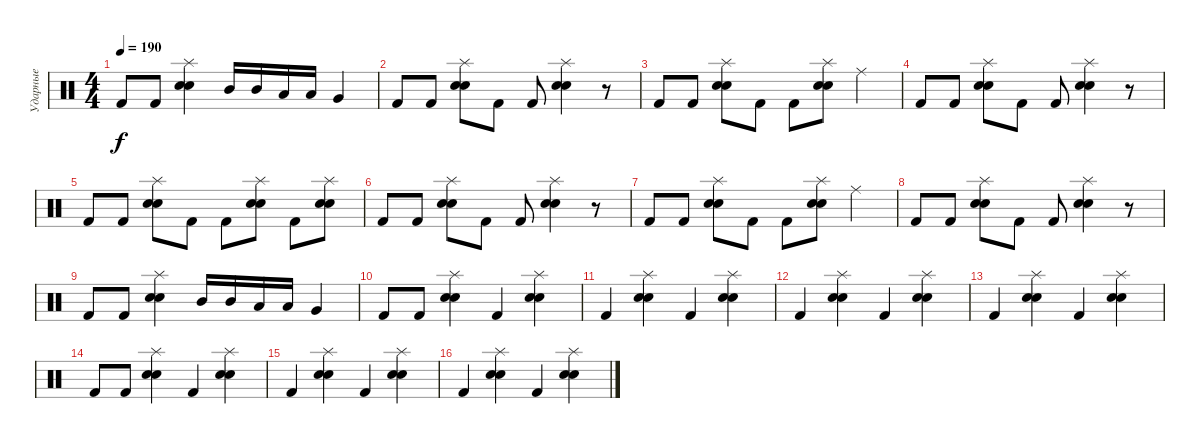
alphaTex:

\track ("Ударные" "Ударные") {instrument percussion}
\staff {score}
\articulation defaults
\ts (4 4)
\tempo 190
\clef neutral
\ks c "Kick (hit) 2".8{dy f} "Kick (hit) 2".8
("Splash (hit)" "Electric Snare (hit)" "Snare (hit) 2").4 "Mid Tom (hit)".16 "Mid Tom (hit)".16 "Low Tom (hit)".16 "Low Tom (hit)".16 "Very Low Tom (hit)".4 |
"Kick (hit) 2".8 "Kick (hit) 2".8 ("Splash (hit)" "Electric Snare (hit)" "Snare (hit) 2").8 "Kick (hit) 2".8 "Kick (hit) 2".8 ("Splash (hit)" "Electric Snare (hit)" "Snare (hit) 2").4 r.8 |
"Kick (hit) 2".8 "Kick (hit) 2".8 ("Splash (hit)" "Electric Snare (hit)" "Snare (hit) 2").8 "Kick (hit) 2".8 "Kick (hit) 2".8 ("Splash (hit)" "Electric Snare (hit)" "Snare (hit) 2").8 "Ride (middle)".4 |
"Kick (hit) 2".8 "Kick (hit) 2".8 ("Splash (hit)" "Electric Snare (hit)" "Snare (hit) 2").8 "Kick (hit) 2".8 "Kick (hit) 2".8 ("Splash (hit)" "Electric Snare (hit)" "Snare (hit) 2").4 r.8 |
"Kick (hit) 2".8 "Kick (hit) 2".8 ("Splash (hit)" "Electric Snare (hit)" "Snare (hit) 2").8 "Kick (hit) 2".8 "Kick (hit) 2".8 ("Splash (hit)" "Electric Snare (hit)" "Snare (hit) 2").8 "Kick (hit) 2".8 ("Splash (hit)" "Electric Snare (hit)" "Snare (hit) 2").8 |
"Kick (hit) 2".8 "Kick (hit) 2".8 ("Splash (hit)" "Electric Snare (hit)" "Snare (hit) 2").8 "Kick (hit) 2".8 "Kick (hit) 2".8 ("Splash (hit)" "Electric Snare (hit)" "Snare (hit) 2").4 r.8 |
"Kick (hit) 2".8 "Kick (hit) 2".8 ("Splash (hit)" "Electric Snare (hit)" "Snare (hit) 2").8 "Kick (hit) 2".8 "Kick (hit) 2".8 ("Splash (hit)" "Electric Snare (hit)" "Snare (hit) 2").8 "Ride (middle)".4 |
"Kick (hit) 2".8 "Kick (hit) 2".8 ("Splash (hit)" "Electric Snare (hit)" "Snare (hit) 2").8 "Kick (hit) 2".8 "Kick (hit) 2".8 ("Splash (hit)" "Electric Snare (hit)" "Snare (hit) 2").4 r.8 |
"Kick (hit) 2".8 "Kick (hit) 2".8 ("Splash (hit)" "Electric Snare (hit)" "Snare (hit) 2").4 "Mid Tom (hit)".16 "Mid Tom (hit)".16 "Low Tom (hit)".16 "Low Tom (hit)".16 "Very Low Tom (hit)".4 |
"Kick (hit) 2".8 "Kick (hit) 2".8 ("Splash (hit)" "Electric Snare (hit)" "Snare (hit) 2").4 "Kick (hit) 2".4 ("Splash (hit)" "Electric Snare (hit)" "Snare (hit) 2").4 |
"Kick (hit) 2".4 ("Splash (hit)" "Electric Snare (hit)" "Snare (hit) 2").4 "Kick (hit) 2".4 ("Splash (hit)" "Electric Snare (hit)" "Snare (hit) 2").4 |
"Kick (hit) 2".4 ("Splash (hit)" "Electric Snare (hit)" "Snare (hit) 2").4 "Kick (hit) 2".4 ("Splash (hit)" "Electric Snare (hit)" "Snare (hit) 2").4 |
"Kick (hit) 2".4 ("Splash (hit)" "Electric Snare (hit)" "Snare (hit) 2").4 "Kick (hit) 2".4 ("Splash (hit)" "Electric Snare (hit)" "Snare (hit) 2").4 |
"Kick (hit) 2".8 "Kick (hit) 2".8 ("Splash (hit)" "Electric Snare (hit)" "Snare (hit) 2").4 "Kick (hit) 2".4 ("Splash (hit)" "Electric Snare (hit)" "Snare (hit) 2").4 |
"Kick (hit) 2".4 ("Splash (hit)" "Electric Snare (hit)" "Snare (hit) 2").4 "Kick (hit) 2".4 ("Splash (hit)" "Electric Snare (hit)" "Snare (hit) 2").4 |
"Kick (hit) 2".4 ("Splash (hit)" "Electric Snare (hit)" "Snare (hit) 2").4 "Kick (hit) 2".4 ("Splash (hit)" "Electric Snare (hit)" "Snare (hit) 2").4
